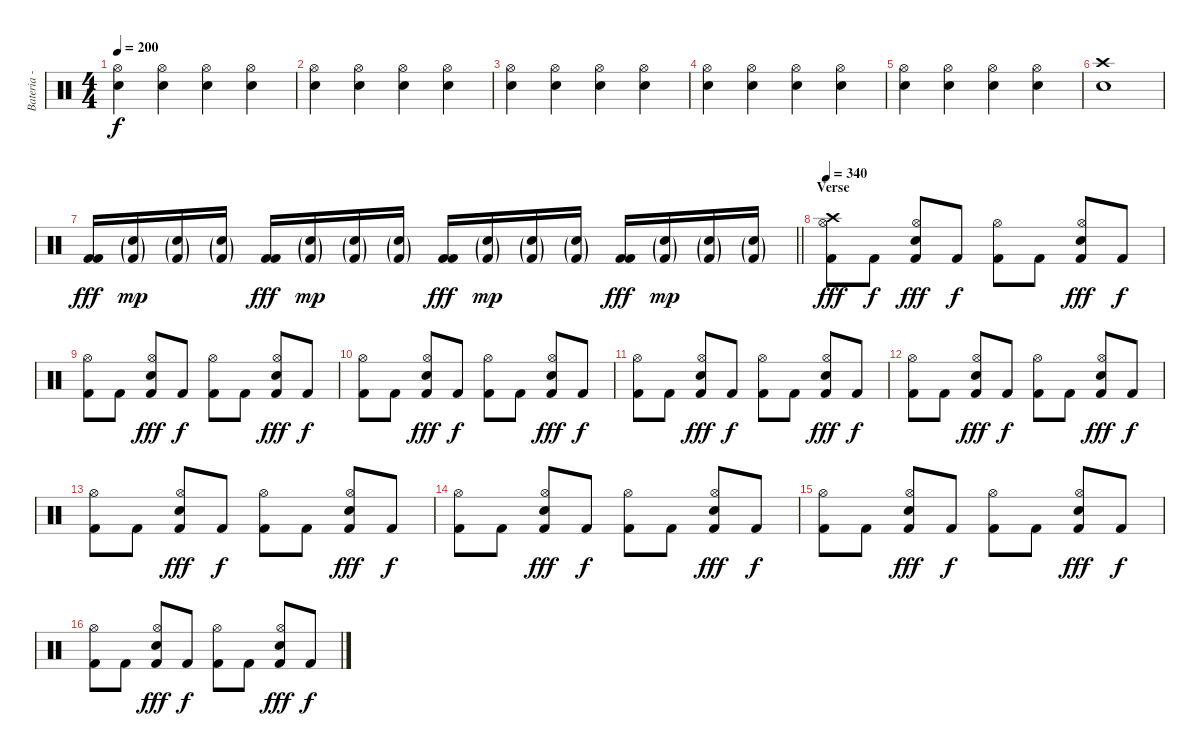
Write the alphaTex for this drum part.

\track ("Bateria - Larzon" "Bateria - ") {instrument percussion}
\staff {score}
\articulation defaults
\ts (4 4)
\tempo 200
\clef neutral
\ks c
("Snare (hit) 2" "Hi-Hat (open)").4{dy f} ("Snare (hit) 2" "Hi-Hat (open)").4 ("Snare (hit) 2" "Hi-Hat (open)").4 ("Snare (hit) 2" "Hi-Hat (open)").4 |
("Snare (hit) 2" "Hi-Hat (open)").4 ("Snare (hit) 2" "Hi-Hat (open)").4 ("Snare (hit) 2" "Hi-Hat (open)").4 ("Snare (hit) 2" "Hi-Hat (open)").4 |
("Snare (hit) 2" "Hi-Hat (open)").4 ("Snare (hit) 2" "Hi-Hat (open)").4 ("Snare (hit) 2" "Hi-Hat (open)").4 ("Snare (hit) 2" "Hi-Hat (open)").4 |
("Snare (hit) 2" "Hi-Hat (open)").4 ("Snare (hit) 2" "Hi-Hat (open)").4 ("Snare (hit) 2" "Hi-Hat (open)").4 ("Snare (hit) 2" "Hi-Hat (open)").4 |
("Snare (hit) 2" "Hi-Hat (open)").4 ("Snare (hit) 2" "Hi-Hat (open)").4 ("Snare (hit) 2" "Hi-Hat (open)").4 ("Snare (hit) 2" "Hi-Hat (open)").4 |
("Crash high (hit)" "Snare (hit) 2").1 |
\barLineRight lightlight
("Kick (hit) 2" "Kick (hit) 2").16{dy fff} ("Kick (hit) 2"{g} "Snare (hit) 2"{g}).16{dy mp} ("Kick (hit) 2"{g} "Snare (hit) 2"{g}).16 ("Kick (hit) 2"{g} "Snare (hit) 2"{g}).16 ("Kick (hit) 2" "Kick (hit) 2").16{dy fff} ("Kick (hit) 2"{g} "Snare (hit) 2"{g}).16{dy mp} ("Kick (hit) 2"{g} "Snare (hit) 2"{g}).16 ("Kick (hit) 2"{g} "Snare (hit) 2"{g}).16 ("Kick (hit) 2" "Kick (hit) 2").16{dy fff} ("Kick (hit) 2"{g} "Snare (hit) 2"{g}).16{dy mp} ("Kick (hit) 2"{g} "Snare (hit) 2"{g}).16 ("Kick (hit) 2"{g} "Snare (hit) 2"{g}).16 ("Kick (hit) 2" "Kick (hit) 2").16{dy fff} ("Kick (hit) 2"{g} "Snare (hit) 2"{g}).16{dy mp} ("Kick (hit) 2"{g} "Snare (hit) 2"{g}).16 ("Kick (hit) 2"{g} "Snare (hit) 2"{g}).16 |
\section ("" "Verse")
\tempo 340
("Crash high (hit)" "Kick (hit) 2" "Hi-Hat (open)").8{dy fff} "Kick (hit) 2".8{dy f} ("Kick (hit) 2" "Hi-Hat (open)" "Snare (hit) 2").8{dy fff} "Kick (hit) 2".8{dy f} ("Kick (hit) 2" "Hi-Hat (open)").8 "Kick (hit) 2".8 ("Kick (hit) 2" "Hi-Hat (open)" "Snare (hit) 2").8{dy fff} "Kick (hit) 2".8{dy f} |
("Kick (hit) 2" "Hi-Hat (open)").8 "Kick (hit) 2".8 ("Kick (hit) 2" "Hi-Hat (open)" "Snare (hit) 2").8{dy fff} "Kick (hit) 2".8{dy f} ("Kick (hit) 2" "Hi-Hat (open)").8 "Kick (hit) 2".8 ("Kick (hit) 2" "Hi-Hat (open)" "Snare (hit) 2").8{dy fff} "Kick (hit) 2".8{dy f} |
("Kick (hit) 2" "Hi-Hat (open)").8 "Kick (hit) 2".8 ("Kick (hit) 2" "Hi-Hat (open)" "Snare (hit) 2").8{dy fff} "Kick (hit) 2".8{dy f} ("Kick (hit) 2" "Hi-Hat (open)").8 "Kick (hit) 2".8 ("Kick (hit) 2" "Hi-Hat (open)" "Snare (hit) 2").8{dy fff} "Kick (hit) 2".8{dy f} |
("Kick (hit) 2" "Hi-Hat (open)").8 "Kick (hit) 2".8 ("Kick (hit) 2" "Hi-Hat (open)" "Snare (hit) 2").8{dy fff} "Kick (hit) 2".8{dy f} ("Kick (hit) 2" "Hi-Hat (open)").8 "Kick (hit) 2".8 ("Kick (hit) 2" "Hi-Hat (open)" "Snare (hit) 2").8{dy fff} "Kick (hit) 2".8{dy f} |
("Kick (hit) 2" "Hi-Hat (open)").8 "Kick (hit) 2".8 ("Kick (hit) 2" "Hi-Hat (open)" "Snare (hit) 2").8{dy fff} "Kick (hit) 2".8{dy f} ("Kick (hit) 2" "Hi-Hat (open)").8 "Kick (hit) 2".8 ("Kick (hit) 2" "Hi-Hat (open)" "Snare (hit) 2").8{dy fff} "Kick (hit) 2".8{dy f} |
("Kick (hit) 2" "Hi-Hat (open)").8 "Kick (hit) 2".8 ("Kick (hit) 2" "Hi-Hat (open)" "Snare (hit) 2").8{dy fff} "Kick (hit) 2".8{dy f} ("Kick (hit) 2" "Hi-Hat (open)").8 "Kick (hit) 2".8 ("Kick (hit) 2" "Hi-Hat (open)" "Snare (hit) 2").8{dy fff} "Kick (hit) 2".8{dy f} |
("Kick (hit) 2" "Hi-Hat (open)").8 "Kick (hit) 2".8 ("Kick (hit) 2" "Hi-Hat (open)" "Snare (hit) 2").8{dy fff} "Kick (hit) 2".8{dy f} ("Kick (hit) 2" "Hi-Hat (open)").8 "Kick (hit) 2".8 ("Kick (hit) 2" "Hi-Hat (open)" "Snare (hit) 2").8{dy fff} "Kick (hit) 2".8{dy f} |
("Kick (hit) 2" "Hi-Hat (open)").8 "Kick (hit) 2".8 ("Kick (hit) 2" "Hi-Hat (open)" "Snare (hit) 2").8{dy fff} "Kick (hit) 2".8{dy f} ("Kick (hit) 2" "Hi-Hat (open)").8 "Kick (hit) 2".8 ("Kick (hit) 2" "Hi-Hat (open)" "Snare (hit) 2").8{dy fff} "Kick (hit) 2".8{dy f} |
("Kick (hit) 2" "Hi-Hat (open)").8 "Kick (hit) 2".8 ("Kick (hit) 2" "Hi-Hat (open)" "Snare (hit) 2").8{dy fff} "Kick (hit) 2".8{dy f} ("Kick (hit) 2" "Hi-Hat (open)").8 "Kick (hit) 2".8 ("Kick (hit) 2" "Hi-Hat (open)" "Snare (hit) 2").8{dy fff} "Kick (hit) 2".8{dy f}
